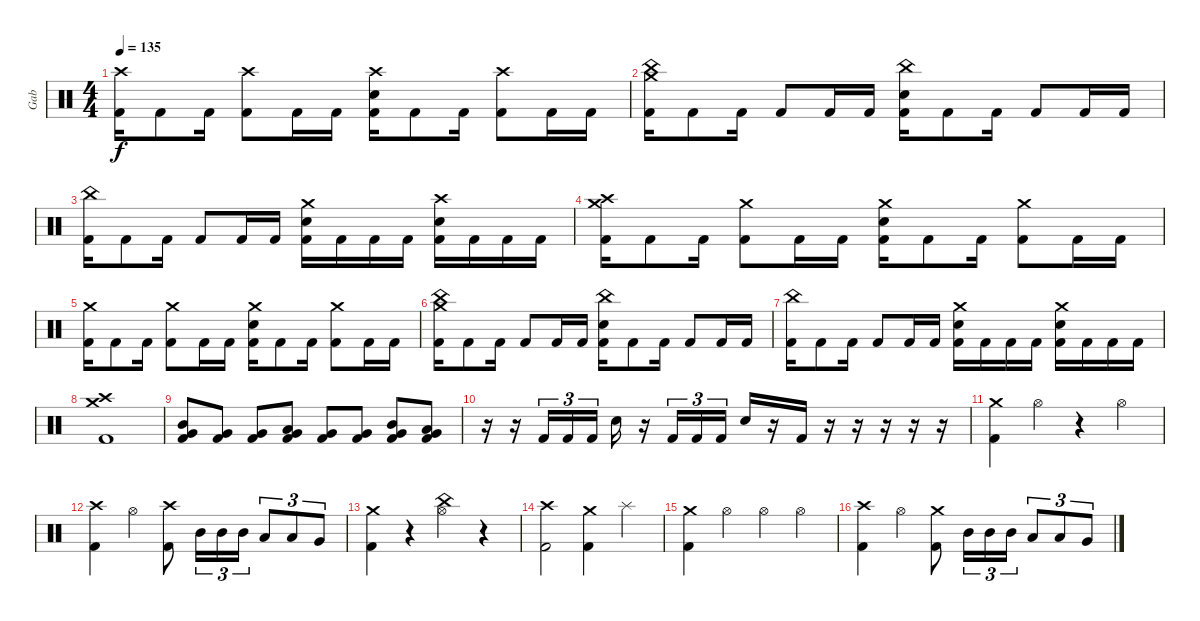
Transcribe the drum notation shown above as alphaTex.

\track ("Gab" "Gab") {instrument percussion}
\staff {score}
\articulation defaults
\ts (4 4)
\tempo 135
\clef neutral
\ks c
("Crash high (hit)" "Kick (hit) 2").16{dy f} "Kick (hit) 2".8 "Kick (hit) 2".16 ("Crash high (hit)" "Kick (hit) 2").8 "Kick (hit) 2".16 "Kick (hit) 2".16 ("Crash high (hit)" "Electric Snare (hit)" "Kick (hit) 2").16 "Kick (hit) 2".8 "Kick (hit) 2".16 ("Crash high (hit)" "Kick (hit) 2").8 "Kick (hit) 2".16 "Kick (hit) 2".16 |
("Crash medium (hit)" "China (hit)" "Kick (hit) 2").16 "Kick (hit) 2".8 "Kick (hit) 2".16 "Kick (hit) 2".8 "Kick (hit) 2".16 "Kick (hit) 2".16 ("China (hit)" "Electric Snare (hit)" "Kick (hit) 2").16 "Kick (hit) 2".8 "Kick (hit) 2".16 "Kick (hit) 2".8 "Kick (hit) 2".16 "Kick (hit) 2".16 |
("China (hit)" "Kick (hit) 2").16 "Kick (hit) 2".8 "Kick (hit) 2".16 "Kick (hit) 2".8 "Kick (hit) 2".16 "Kick (hit) 2".16 ("Crash medium (hit)" "Electric Snare (hit)" "Kick (hit) 2").16 "Kick (hit) 2".16 "Kick (hit) 2".16 "Kick (hit) 2".16 ("Crash high (hit)" "Electric Snare (hit)" "Kick (hit) 2").16 "Kick (hit) 2".16 "Kick (hit) 2".16 "Kick (hit) 2".16 |
("Crash medium (hit)" "Crash high (hit)" "Kick (hit) 2").16 "Kick (hit) 2".8 "Kick (hit) 2".16 ("Crash medium (hit)" "Kick (hit) 2").8 "Kick (hit) 2".16 "Kick (hit) 2".16 ("Crash medium (hit)" "Electric Snare (hit)" "Kick (hit) 2").16 "Kick (hit) 2".8 "Kick (hit) 2".16 ("Crash medium (hit)" "Kick (hit) 2").8 "Kick (hit) 2".16 "Kick (hit) 2".16 |
("Crash medium (hit)" "Kick (hit) 2").16 "Kick (hit) 2".8 "Kick (hit) 2".16 ("Crash medium (hit)" "Kick (hit) 2").8 "Kick (hit) 2".16 "Kick (hit) 2".16 ("Crash medium (hit)" "Electric Snare (hit)" "Kick (hit) 2").16 "Kick (hit) 2".8 "Kick (hit) 2".16 ("Crash medium (hit)" "Kick (hit) 2").8 "Kick (hit) 2".16 "Kick (hit) 2".16 |
("Crash medium (hit)" "China (hit)" "Kick (hit) 2").16 "Kick (hit) 2".8 "Kick (hit) 2".16 "Kick (hit) 2".8 "Kick (hit) 2".16 "Kick (hit) 2".16 ("China (hit)" "Electric Snare (hit)" "Kick (hit) 2").16 "Kick (hit) 2".8 "Kick (hit) 2".16 "Kick (hit) 2".8 "Kick (hit) 2".16 "Kick (hit) 2".16 |
("China (hit)" "Kick (hit) 2").16 "Kick (hit) 2".8 "Kick (hit) 2".16 "Kick (hit) 2".8 "Kick (hit) 2".16 "Kick (hit) 2".16 ("Crash medium (hit)" "Electric Snare (hit)" "Kick (hit) 2").16 "Kick (hit) 2".16 "Kick (hit) 2".16 "Kick (hit) 2".16 ("Crash medium (hit)" "Electric Snare (hit)" "Kick (hit) 2").16 "Kick (hit) 2".16 "Kick (hit) 2".16 "Kick (hit) 2".16 |
("Crash medium (hit)" "Crash high (hit)" "Kick (hit) 2").1 |
("Mid Tom (hit)" "Very Low Tom (hit)" "Kick (hit) 2").8 ("Very Low Tom (hit)" "Kick (hit) 2").8 ("Very Low Tom (hit)" "Kick (hit) 2").8 ("Low Tom (hit)" "Very Low Tom (hit)" "Kick (hit) 2").8 ("Very Low Tom (hit)" "Kick (hit) 2").8 ("Very Low Tom (hit)" "Kick (hit) 2").8 ("Mid Tom (hit)" "Very Low Tom (hit)" "Kick (hit) 2").8 ("Low Tom (hit)" "Very Low Tom (hit)" "Kick (hit) 2").8 |
r.16 r.16 "Kick (hit) 2".16{tu (3 2)} "Kick (hit) 2".16{tu (3 2)} "Kick (hit) 2".16{tu (3 2)} "Electric Snare (hit)".16 r.16 "Kick (hit) 2".16{tu (3 2)} "Kick (hit) 2".16{tu (3 2)} "Kick (hit) 2".16{tu (3 2)} "Electric Snare (hit)".16 r.16 "Kick (hit) 2".16 r.16 r.16 r.16 r.16 r.16 |
("Crash medium (hit)" "Kick (hit) 2").4 "Hi-Hat (open)".4 r.4 "Hi-Hat (open)".4 |
("Crash high (hit)" "Kick (hit) 2").4 "Hi-Hat (open)".4 ("Crash high (hit)" "Kick (hit) 2").8 "Mid Tom (hit)".16{tu (3 2)} "Mid Tom (hit)".16{tu (3 2)} "Mid Tom (hit)".16{tu (3 2)} "Low Tom (hit)".8{tu (3 2)} "Low Tom (hit)".8{tu (3 2)} "Very Low Tom (hit)".8{tu (3 2)} |
("Crash medium (hit)" "Kick (hit) 2").4 r.4 ("Hi-Hat (open)" "China (hit)").4 r.4 |
("Crash high (hit)" "Kick (hit) 2").2 ("Crash medium (hit)" "Kick (hit) 2").4 "Splash (hit)".4 |
("Crash medium (hit)" "Kick (hit) 2").4 "Hi-Hat (open)".4 "Hi-Hat (open)".4 "Hi-Hat (open)".4 |
("Crash high (hit)" "Kick (hit) 2").4 "Hi-Hat (open)".4 ("Crash medium (hit)" "Kick (hit) 2").8 "Mid Tom (hit)".16{tu (3 2)} "Mid Tom (hit)".16{tu (3 2)} "Mid Tom (hit)".16{tu (3 2)} "Low Tom (hit)".8{tu (3 2)} "Low Tom (hit)".8{tu (3 2)} "Very Low Tom (hit)".8{tu (3 2)}
